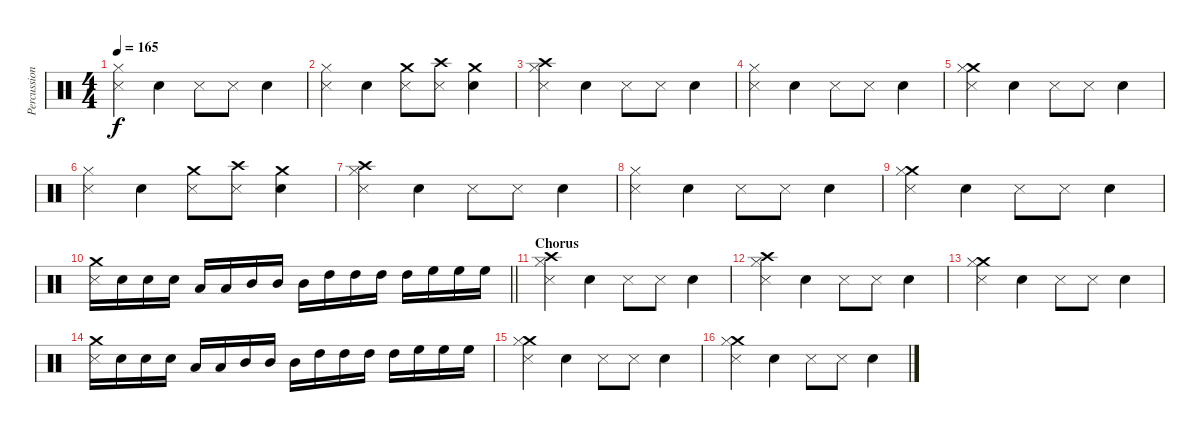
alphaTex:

\track ("Percussion" "Percussion") {instrument percussion}
\staff {score}
\articulation defaults
\ts (4 4)
\tempo 165
\clef neutral
\ks c
("Metronome (hit)" "Hi-Hat (closed)").4{dy f} "Electric Snare (hit)".4 "Metronome (hit)".8 "Metronome (hit)".8 "Electric Snare (hit)".4 |
("Metronome (hit)" "Hi-Hat (closed)").4 "Electric Snare (hit)".4 ("Metronome (hit)" "Crash medium (hit)").8 ("Metronome (hit)" "Crash high (hit)").8 ("Crash medium (hit)" "Electric Snare (hit)").4 |
("Metronome (hit)" "Crash high (hit)" "Hi-Hat (closed)").4 "Electric Snare (hit)".4 "Metronome (hit)".8 "Metronome (hit)".8 "Electric Snare (hit)".4 |
("Metronome (hit)" "Hi-Hat (closed)").4 "Electric Snare (hit)".4 "Metronome (hit)".8 "Metronome (hit)".8 "Electric Snare (hit)".4 |
("Metronome (hit)" "Crash medium (hit)" "Hi-Hat (closed)").4 "Electric Snare (hit)".4 "Metronome (hit)".8 "Metronome (hit)".8 "Electric Snare (hit)".4 |
("Metronome (hit)" "Hi-Hat (closed)").4 "Electric Snare (hit)".4 ("Metronome (hit)" "Crash medium (hit)").8 ("Metronome (hit)" "Crash high (hit)").8 ("Crash medium (hit)" "Electric Snare (hit)").4 |
("Metronome (hit)" "Crash high (hit)" "Hi-Hat (closed)").4 "Electric Snare (hit)".4 "Metronome (hit)".8 "Metronome (hit)".8 "Electric Snare (hit)".4 |
("Metronome (hit)" "Hi-Hat (closed)").4 "Electric Snare (hit)".4 "Metronome (hit)".8 "Metronome (hit)".8 "Electric Snare (hit)".4 |
("Metronome (hit)" "Crash medium (hit)" "Hi-Hat (closed)").4 "Electric Snare (hit)".4 "Metronome (hit)".8 "Metronome (hit)".8 "Electric Snare (hit)".4 |
\barLineRight lightlight
("Metronome (hit)" "Crash medium (hit)").16 "Electric Snare (hit)".16 "Electric Snare (hit)".16 "Electric Snare (hit)".16 "Low Tom (hit)".16 "Low Tom (hit)".16 "Mid Tom (hit)".16 "Mid Tom (hit)".16 "Mid Tom (hit)".16 "High Tom (hit)".16 "High Tom (hit)".16 "High Tom (hit)".16 "High Tom (hit)".16 "High Floor Tom (hit)".16 "High Floor Tom (hit)".16 "High Floor Tom (hit)".16 |
\section ("" "Chorus")
("Metronome (hit)" "Crash high (hit)" "Hi-Hat (closed)").4 "Electric Snare (hit)".4 "Metronome (hit)".8 "Metronome (hit)".8 "Electric Snare (hit)".4 |
("Metronome (hit)" "Crash high (hit)" "Hi-Hat (closed)").4 "Electric Snare (hit)".4 "Metronome (hit)".8 "Metronome (hit)".8 "Electric Snare (hit)".4 |
("Metronome (hit)" "Crash medium (hit)" "Hi-Hat (closed)").4 "Electric Snare (hit)".4 "Metronome (hit)".8 "Metronome (hit)".8 "Electric Snare (hit)".4 |
("Metronome (hit)" "Crash medium (hit)").16 "Electric Snare (hit)".16 "Electric Snare (hit)".16 "Electric Snare (hit)".16 "Low Tom (hit)".16 "Low Tom (hit)".16 "Mid Tom (hit)".16 "Mid Tom (hit)".16 "Mid Tom (hit)".16 "High Tom (hit)".16 "High Tom (hit)".16 "High Tom (hit)".16 "High Tom (hit)".16 "High Floor Tom (hit)".16 "High Floor Tom (hit)".16 "High Floor Tom (hit)".16 |
("Metronome (hit)" "Crash medium (hit)" "Hi-Hat (closed)").4 "Electric Snare (hit)".4 "Metronome (hit)".8 "Metronome (hit)".8 "Electric Snare (hit)".4 |
("Metronome (hit)" "Crash medium (hit)" "Hi-Hat (closed)").4 "Electric Snare (hit)".4 "Metronome (hit)".8 "Metronome (hit)".8 "Electric Snare (hit)".4
